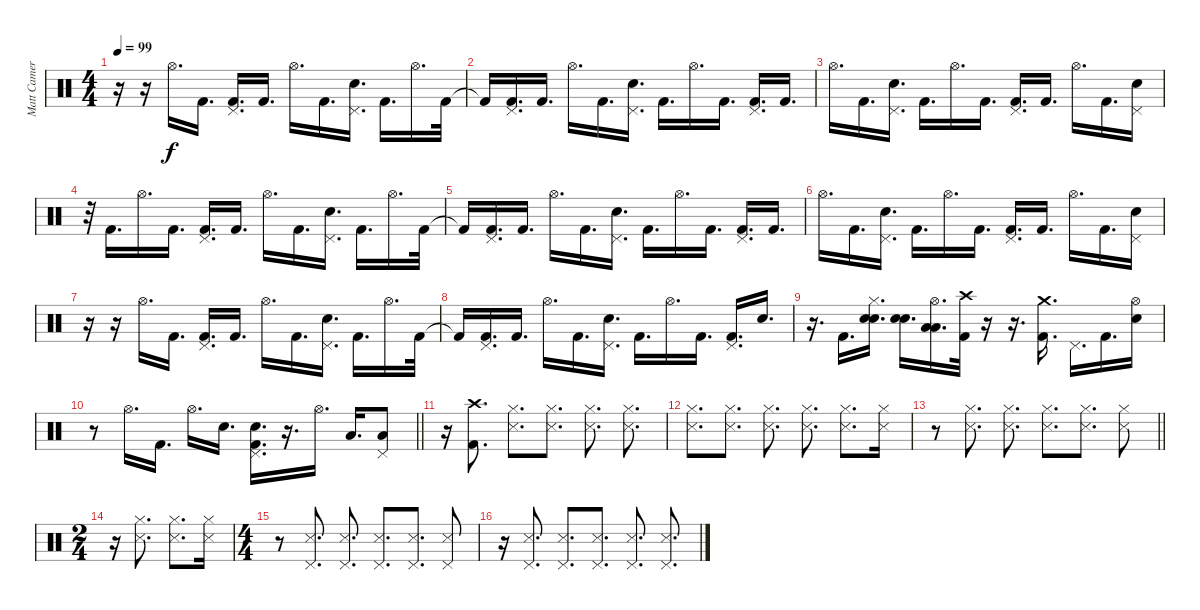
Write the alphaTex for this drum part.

\track ("Matt Cameron" "Matt Camer") {instrument percussion}
\staff {score}
\articulation defaults
\ts (4 4)
\tempo 99
\clef neutral
\ks c
r.16{dy f} r.16 "Hi-Hat (open)".16{d} "Kick (hit) 2".16{d} ("Pedal Hi-Hat (hit)" "Kick (hit) 2").16{d} "Kick (hit) 2".16{d} "Hi-Hat (open)".16{d} "Kick (hit) 2".16{d} ("Pedal Hi-Hat (hit)" "Electric Snare (hit)").16{d} "Kick (hit) 2".16{d} "Hi-Hat (open)".16{d} "Kick (hit) 2".32 |
"Kick (hit) 2"{t}.16 ("Pedal Hi-Hat (hit)" "Kick (hit) 2").16{d} "Kick (hit) 2".16{d} "Hi-Hat (open)".16{d} "Kick (hit) 2".16{d} ("Pedal Hi-Hat (hit)" "Electric Snare (hit)").16{d} "Kick (hit) 2".16{d} "Hi-Hat (open)".16{d} "Kick (hit) 2".16{d} ("Pedal Hi-Hat (hit)" "Kick (hit) 2").16{d} "Kick (hit) 2".16{d} |
"Hi-Hat (open)".16{d} "Kick (hit) 2".16{d} ("Pedal Hi-Hat (hit)" "Electric Snare (hit)").16{d} "Kick (hit) 2".16{d} "Hi-Hat (open)".16{d} "Kick (hit) 2".16{d} ("Pedal Hi-Hat (hit)" "Kick (hit) 2").16{d} "Kick (hit) 2".16{d} "Hi-Hat (open)".16{d} "Kick (hit) 2".16{d} ("Pedal Hi-Hat (hit)" "Electric Snare (hit)").16 |
r.32 "Kick (hit) 2".16{d} "Hi-Hat (open)".16{d} "Kick (hit) 2".16{d} ("Pedal Hi-Hat (hit)" "Kick (hit) 2").16{d} "Kick (hit) 2".16{d} "Hi-Hat (open)".16{d} "Kick (hit) 2".16{d} ("Pedal Hi-Hat (hit)" "Electric Snare (hit)").16{d} "Kick (hit) 2".16{d} "Hi-Hat (open)".16{d} "Kick (hit) 2".32 |
"Kick (hit) 2"{t}.16 ("Pedal Hi-Hat (hit)" "Kick (hit) 2").16{d} "Kick (hit) 2".16{d} "Hi-Hat (open)".16{d} "Kick (hit) 2".16{d} ("Pedal Hi-Hat (hit)" "Electric Snare (hit)").16{d} "Kick (hit) 2".16{d} "Hi-Hat (open)".16{d} "Kick (hit) 2".16{d} ("Pedal Hi-Hat (hit)" "Kick (hit) 2").16{d} "Kick (hit) 2".16{d} |
"Hi-Hat (open)".16{d} "Kick (hit) 2".16{d} ("Pedal Hi-Hat (hit)" "Electric Snare (hit)").16{d} "Kick (hit) 2".16{d} "Hi-Hat (open)".16{d} "Kick (hit) 2".16{d} ("Pedal Hi-Hat (hit)" "Kick (hit) 2").16{d} "Kick (hit) 2".16{d} "Hi-Hat (open)".16{d} "Kick (hit) 2".16{d} ("Pedal Hi-Hat (hit)" "Electric Snare (hit)").16 |
r.16 r.16 "Hi-Hat (open)".16{d} "Kick (hit) 2".16{d} ("Pedal Hi-Hat (hit)" "Kick (hit) 2").16{d} "Kick (hit) 2".16{d} "Hi-Hat (open)".16{d} "Kick (hit) 2".16{d} ("Pedal Hi-Hat (hit)" "Electric Snare (hit)").16{d} "Kick (hit) 2".16{d} "Hi-Hat (open)".16{d} "Kick (hit) 2".32 |
"Kick (hit) 2"{t}.16 ("Pedal Hi-Hat (hit)" "Kick (hit) 2").16{d} "Kick (hit) 2".16{d} "Hi-Hat (open)".16{d} "Kick (hit) 2".16{d} ("Pedal Hi-Hat (hit)" "Electric Snare (hit)").16{d} "Kick (hit) 2".16{d} "Hi-Hat (open)".16{d} "Kick (hit) 2".16{d} ("Pedal Hi-Hat (hit)" "Kick (hit) 2").16{d} "Electric Snare (hit)".16{d} |
r.16{d} "Kick (hit) 2".16{d} ("Hi-Hat (closed)" "Electric Snare (hit)" "Electric Snare (hit)").16{d} ("Electric Snare (hit)" "Electric Snare (hit)").16{d} ("Hi-Hat (open)" "Low Floor Tom (hit)" "Low Floor Tom (hit)").16{d} ("Crash high (hit)" "Kick (hit) 2").32 r.16 r.16{d} ("Crash medium (hit)" "Kick (hit) 2").16{d} "Pedal Hi-Hat (hit)".16{d} "Kick (hit) 2".16{d} ("Hi-Hat (open)" "Electric Snare (hit)").16 |
\barLineRight lightlight
r.8 "Hi-Hat (open)".16{d} "Kick (hit) 2".16{d} "Hi-Hat (open)".16{d} "Electric Snare (hit)".16{d} ("Pedal Hi-Hat (hit)" "Electric Snare (hit)" "Kick (hit) 2").16{d} r.16{d} "Hi-Hat (open)".16{d} "Low Floor Tom (hit)".16{d} ("Pedal Hi-Hat (hit)" "Low Floor Tom (hit)").8 |
\section ("" "")
r.16 ("Crash high (hit)" "Kick (hit) 2").8{d} ("Hi-Hat (closed)" "Snare (side stick) 3").8{d} ("Hi-Hat (closed)" "Snare (side stick) 3").8{d} ("Hi-Hat (closed)" "Snare (side stick) 3").8{d} ("Hi-Hat (closed)" "Snare (side stick) 3").8{d} |
("Hi-Hat (closed)" "Snare (side stick) 3").8{d} ("Hi-Hat (closed)" "Snare (side stick) 3").8{d} ("Hi-Hat (closed)" "Snare (side stick) 3").8{d} ("Hi-Hat (closed)" "Snare (side stick) 3").8{d} ("Hi-Hat (closed)" "Snare (side stick) 3").8{d} ("Hi-Hat (closed)" "Snare (side stick) 3").16 |
\barLineRight lightlight
r.8 ("Hi-Hat (closed)" "Snare (side stick) 3").8{d} ("Hi-Hat (closed)" "Snare (side stick) 3").8{d} ("Hi-Hat (closed)" "Snare (side stick) 3").8{d} ("Hi-Hat (closed)" "Snare (side stick) 3").8{d} ("Hi-Hat (closed)" "Snare (side stick) 3").8 |
\ts (2 4)
\section ("" "")
r.16 ("Hi-Hat (closed)" "Snare (side stick) 3").8{d} ("Hi-Hat (closed)" "Snare (side stick) 3").8{d} ("Hi-Hat (closed)" "Snare (side stick) 3").16 |
\ts (4 4)
r.8 ("Pedal Hi-Hat (hit)" "Snare (side stick) 3").8{d} ("Pedal Hi-Hat (hit)" "Snare (side stick) 3").8{d} ("Pedal Hi-Hat (hit)" "Snare (side stick) 3").8{d} ("Pedal Hi-Hat (hit)" "Snare (side stick) 3").8{d} ("Pedal Hi-Hat (hit)" "Snare (side stick) 3").8 |
r.16 ("Pedal Hi-Hat (hit)" "Snare (side stick) 3").8{d} ("Pedal Hi-Hat (hit)" "Snare (side stick) 3").8{d} ("Pedal Hi-Hat (hit)" "Snare (side stick) 3").8{d} ("Pedal Hi-Hat (hit)" "Snare (side stick) 3").8{d} ("Pedal Hi-Hat (hit)" "Snare (side stick) 3").8{d}
